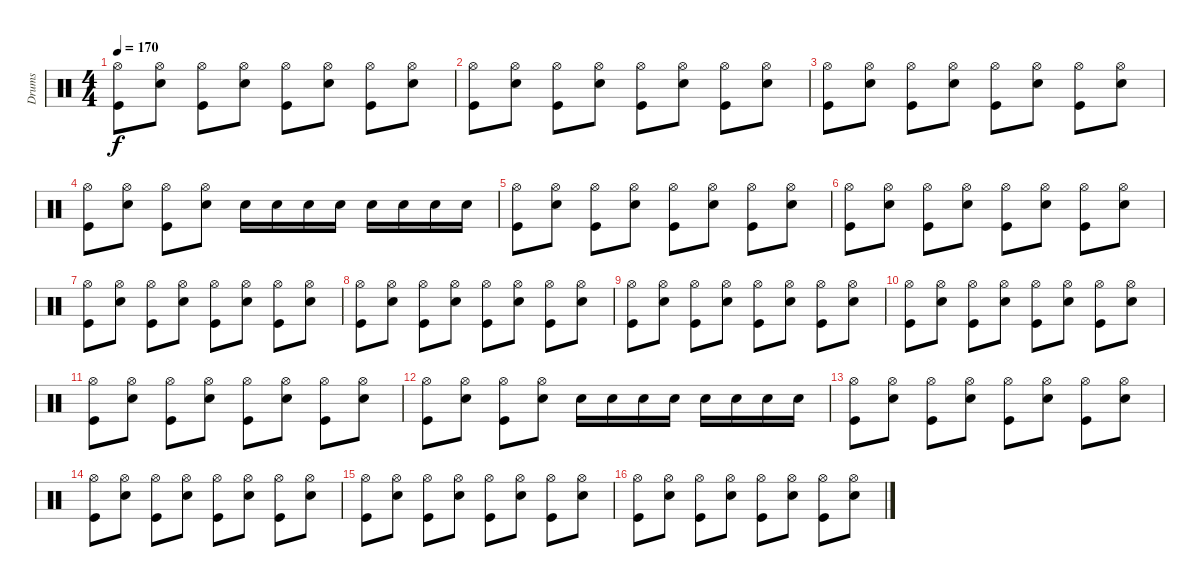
\track ("Drums" "Drums") {instrument percussion}
\staff {score}
\articulation defaults
\ts (4 4)
\tempo 170
\clef neutral
\ks c
("Hi-Hat (open)" "Kick (hit)").8{dy f} ("Hi-Hat (open)" "Snare (hit) 2").8 ("Hi-Hat (open)" "Kick (hit)").8 ("Hi-Hat (open)" "Snare (hit) 2").8 ("Hi-Hat (open)" "Kick (hit)").8 ("Hi-Hat (open)" "Snare (hit) 2").8 ("Hi-Hat (open)" "Kick (hit)").8 ("Hi-Hat (open)" "Snare (hit) 2").8 |
("Hi-Hat (open)" "Kick (hit)").8 ("Hi-Hat (open)" "Snare (hit) 2").8 ("Hi-Hat (open)" "Kick (hit)").8 ("Hi-Hat (open)" "Snare (hit) 2").8 ("Hi-Hat (open)" "Kick (hit)").8 ("Hi-Hat (open)" "Snare (hit) 2").8 ("Hi-Hat (open)" "Kick (hit)").8 ("Hi-Hat (open)" "Snare (hit) 2").8 |
("Hi-Hat (open)" "Kick (hit)").8 ("Hi-Hat (open)" "Snare (hit) 2").8 ("Hi-Hat (open)" "Kick (hit)").8 ("Hi-Hat (open)" "Snare (hit) 2").8 ("Hi-Hat (open)" "Kick (hit)").8 ("Hi-Hat (open)" "Snare (hit) 2").8 ("Hi-Hat (open)" "Kick (hit)").8 ("Hi-Hat (open)" "Snare (hit) 2").8 |
("Hi-Hat (open)" "Kick (hit)").8 ("Hi-Hat (open)" "Snare (hit) 2").8 ("Hi-Hat (open)" "Kick (hit)").8 ("Hi-Hat (open)" "Snare (hit) 2").8 "Snare (hit) 2".16 "Snare (hit) 2".16 "Snare (hit) 2".16 "Snare (hit) 2".16 "Snare (hit) 2".16 "Snare (hit) 2".16 "Snare (hit) 2".16 "Snare (hit) 2".16 |
("Hi-Hat (open)" "Kick (hit)").8 ("Hi-Hat (open)" "Snare (hit) 2").8 ("Hi-Hat (open)" "Kick (hit)").8 ("Hi-Hat (open)" "Snare (hit) 2").8 ("Hi-Hat (open)" "Kick (hit)").8 ("Hi-Hat (open)" "Snare (hit) 2").8 ("Hi-Hat (open)" "Kick (hit)").8 ("Hi-Hat (open)" "Snare (hit) 2").8 |
("Hi-Hat (open)" "Kick (hit)").8 ("Hi-Hat (open)" "Snare (hit) 2").8 ("Hi-Hat (open)" "Kick (hit)").8 ("Hi-Hat (open)" "Snare (hit) 2").8 ("Hi-Hat (open)" "Kick (hit)").8 ("Hi-Hat (open)" "Snare (hit) 2").8 ("Hi-Hat (open)" "Kick (hit)").8 ("Hi-Hat (open)" "Snare (hit) 2").8 |
("Hi-Hat (open)" "Kick (hit)").8 ("Hi-Hat (open)" "Snare (hit) 2").8 ("Hi-Hat (open)" "Kick (hit)").8 ("Hi-Hat (open)" "Snare (hit) 2").8 ("Hi-Hat (open)" "Kick (hit)").8 ("Hi-Hat (open)" "Snare (hit) 2").8 ("Hi-Hat (open)" "Kick (hit)").8 ("Hi-Hat (open)" "Snare (hit) 2").8 |
("Hi-Hat (open)" "Kick (hit)").8 ("Hi-Hat (open)" "Snare (hit) 2").8 ("Hi-Hat (open)" "Kick (hit)").8 ("Hi-Hat (open)" "Snare (hit) 2").8 ("Hi-Hat (open)" "Kick (hit)").8 ("Hi-Hat (open)" "Snare (hit) 2").8 ("Hi-Hat (open)" "Kick (hit)").8 ("Hi-Hat (open)" "Snare (hit) 2").8 |
("Hi-Hat (open)" "Kick (hit)").8 ("Hi-Hat (open)" "Snare (hit) 2").8 ("Hi-Hat (open)" "Kick (hit)").8 ("Hi-Hat (open)" "Snare (hit) 2").8 ("Hi-Hat (open)" "Kick (hit)").8 ("Hi-Hat (open)" "Snare (hit) 2").8 ("Hi-Hat (open)" "Kick (hit)").8 ("Hi-Hat (open)" "Snare (hit) 2").8 |
("Hi-Hat (open)" "Kick (hit)").8 ("Hi-Hat (open)" "Snare (hit) 2").8 ("Hi-Hat (open)" "Kick (hit)").8 ("Hi-Hat (open)" "Snare (hit) 2").8 ("Hi-Hat (open)" "Kick (hit)").8 ("Hi-Hat (open)" "Snare (hit) 2").8 ("Hi-Hat (open)" "Kick (hit)").8 ("Hi-Hat (open)" "Snare (hit) 2").8 |
("Hi-Hat (open)" "Kick (hit)").8 ("Hi-Hat (open)" "Snare (hit) 2").8 ("Hi-Hat (open)" "Kick (hit)").8 ("Hi-Hat (open)" "Snare (hit) 2").8 ("Hi-Hat (open)" "Kick (hit)").8 ("Hi-Hat (open)" "Snare (hit) 2").8 ("Hi-Hat (open)" "Kick (hit)").8 ("Hi-Hat (open)" "Snare (hit) 2").8 |
("Hi-Hat (open)" "Kick (hit)").8 ("Hi-Hat (open)" "Snare (hit) 2").8 ("Hi-Hat (open)" "Kick (hit)").8 ("Hi-Hat (open)" "Snare (hit) 2").8 "Snare (hit) 2".16 "Snare (hit) 2".16 "Snare (hit) 2".16 "Snare (hit) 2".16 "Snare (hit) 2".16 "Snare (hit) 2".16 "Snare (hit) 2".16 "Snare (hit) 2".16 |
("Hi-Hat (open)" "Kick (hit)").8 ("Hi-Hat (open)" "Snare (hit) 2").8 ("Hi-Hat (open)" "Kick (hit)").8 ("Hi-Hat (open)" "Snare (hit) 2").8 ("Hi-Hat (open)" "Kick (hit)").8 ("Hi-Hat (open)" "Snare (hit) 2").8 ("Hi-Hat (open)" "Kick (hit)").8 ("Hi-Hat (open)" "Snare (hit) 2").8 |
("Hi-Hat (open)" "Kick (hit)").8 ("Hi-Hat (open)" "Snare (hit) 2").8 ("Hi-Hat (open)" "Kick (hit)").8 ("Hi-Hat (open)" "Snare (hit) 2").8 ("Hi-Hat (open)" "Kick (hit)").8 ("Hi-Hat (open)" "Snare (hit) 2").8 ("Hi-Hat (open)" "Kick (hit)").8 ("Hi-Hat (open)" "Snare (hit) 2").8 |
("Hi-Hat (open)" "Kick (hit)").8 ("Hi-Hat (open)" "Snare (hit) 2").8 ("Hi-Hat (open)" "Kick (hit)").8 ("Hi-Hat (open)" "Snare (hit) 2").8 ("Hi-Hat (open)" "Kick (hit)").8 ("Hi-Hat (open)" "Snare (hit) 2").8 ("Hi-Hat (open)" "Kick (hit)").8 ("Hi-Hat (open)" "Snare (hit) 2").8 |
("Hi-Hat (open)" "Kick (hit)").8 ("Hi-Hat (open)" "Snare (hit) 2").8 ("Hi-Hat (open)" "Kick (hit)").8 ("Hi-Hat (open)" "Snare (hit) 2").8 ("Hi-Hat (open)" "Kick (hit)").8 ("Hi-Hat (open)" "Snare (hit) 2").8 ("Hi-Hat (open)" "Kick (hit)").8 ("Hi-Hat (open)" "Snare (hit) 2").8
